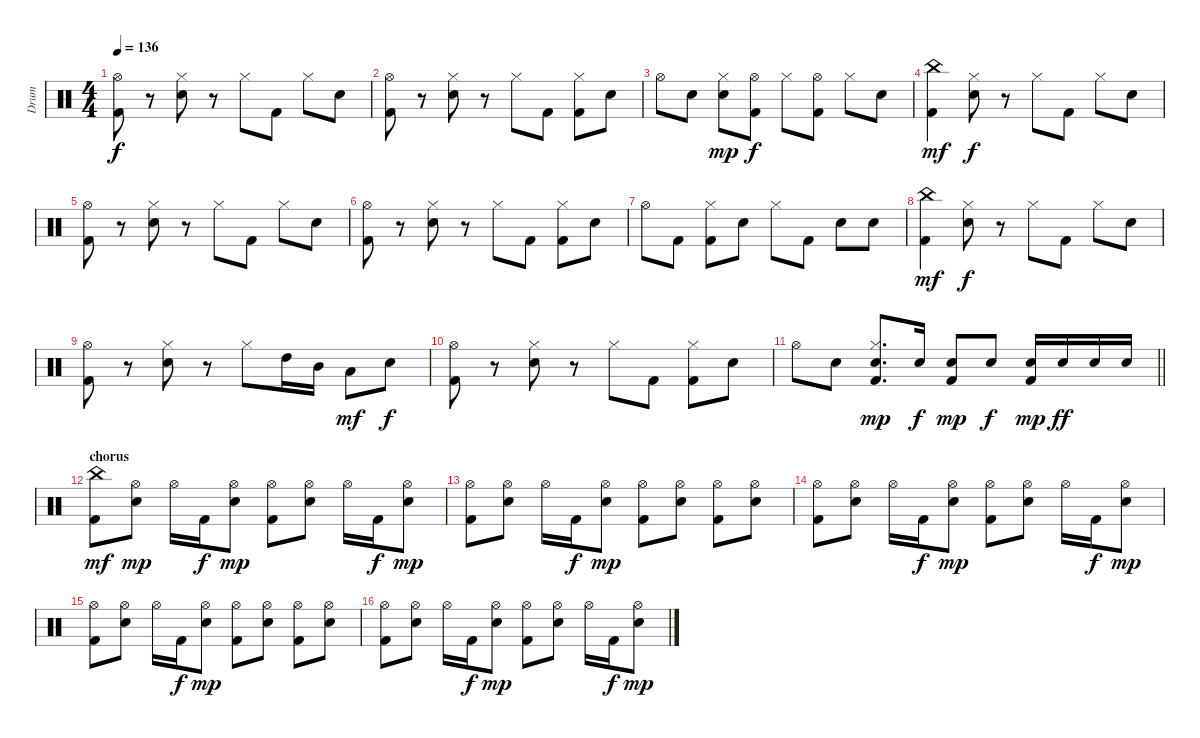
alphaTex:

\track ("Drum" "Drum") {instrument percussion}
\staff {score}
\articulation defaults
\ts (4 4)
\tempo 136
\clef neutral
\ks c
("Kick (hit) 2" "Hi-Hat (open)").8{dy f} r.8 ("Hi-Hat (closed)" "Electric Snare (hit)").8 r.8 "Hi-Hat (closed)".8 "Kick (hit) 2".8 "Hi-Hat (closed)".8 "Electric Snare (hit)".8 |
("Kick (hit) 2" "Hi-Hat (open)").8 r.8 ("Hi-Hat (closed)" "Electric Snare (hit)").8 r.8 "Hi-Hat (closed)".8 "Kick (hit) 2".8 ("Kick (hit) 2" "Hi-Hat (closed)").8 "Electric Snare (hit)".8 |
"Hi-Hat (open)".8 "Electric Snare (hit)".8 ("Electric Snare (hit)" "Hi-Hat (closed)").8{dy mp} ("Kick (hit) 2" "Hi-Hat (open)").8{dy f} "Hi-Hat (closed)".8 ("Kick (hit) 2" "Hi-Hat (open)").8 "Hi-Hat (closed)".8 "Electric Snare (hit)".8 |
("Kick (hit) 2" "China (hit)").4{dy mf} ("Hi-Hat (closed)" "Electric Snare (hit)").8{dy f} r.8 "Hi-Hat (closed)".8 "Kick (hit) 2".8 "Hi-Hat (closed)".8 "Electric Snare (hit)".8 |
("Kick (hit) 2" "Hi-Hat (open)").8 r.8 ("Hi-Hat (closed)" "Electric Snare (hit)").8 r.8 "Hi-Hat (closed)".8 "Kick (hit) 2".8 "Hi-Hat (closed)".8 "Electric Snare (hit)".8 |
("Kick (hit) 2" "Hi-Hat (open)").8 r.8 ("Hi-Hat (closed)" "Electric Snare (hit)").8 r.8 "Hi-Hat (closed)".8 "Kick (hit) 2".8 ("Kick (hit) 2" "Hi-Hat (closed)").8 "Electric Snare (hit)".8 |
"Hi-Hat (open)".8 "Kick (hit) 2".8 ("Kick (hit) 2" "Hi-Hat (closed)").8 "Electric Snare (hit)".8 "Hi-Hat (closed)".8 "Kick (hit) 2".8 "Electric Snare (hit)".8 "Electric Snare (hit)".8 |
("Kick (hit) 2" "China (hit)").4{dy mf} ("Hi-Hat (closed)" "Electric Snare (hit)").8{dy f} r.8 "Hi-Hat (closed)".8 "Kick (hit) 2".8 "Hi-Hat (closed)".8 "Electric Snare (hit)".8 |
("Kick (hit) 2" "Hi-Hat (open)").8 r.8 ("Hi-Hat (closed)" "Electric Snare (hit)").8 r.8 "Hi-Hat (closed)".8 "High Tom (hit)".16 "Mid Tom (hit)".16 "Low Tom (hit)".8{dy mf} "Electric Snare (hit)".8{dy f} |
("Kick (hit) 2" "Hi-Hat (open)").8 r.8 ("Hi-Hat (closed)" "Electric Snare (hit)").8 r.8 "Hi-Hat (closed)".8 "Kick (hit) 2".8 ("Kick (hit) 2" "Hi-Hat (closed)").8 "Electric Snare (hit)".8 |
\barLineRight lightlight "Hi-Hat (open)".8 "Electric Snare (hit)".8
("Electric Snare (hit)" "Hi-Hat (closed)" "Kick (hit) 2").8{d dy mp} "Electric Snare (hit)".16{dy f} ("Electric Snare (hit)" "Kick (hit) 2").8{dy mp} "Electric Snare (hit)".8{dy f} ("Electric Snare (hit)" "Kick (hit) 2").16{dy mp} "Electric Snare (hit)".16{dy ff} "Electric Snare (hit)".16 "Electric Snare (hit)".16 |
\section ("" "chorus")
("Kick (hit) 2" "China (hit)").8{dy mf} ("Electric Snare (hit)" "Hi-Hat (open)").8{dy mp} "Hi-Hat (open)".16 "Kick (hit) 2".16{dy f} ("Electric Snare (hit)" "Hi-Hat (open)").8{dy mp} ("Kick (hit) 2" "Hi-Hat (open)").8 ("Electric Snare (hit)" "Hi-Hat (open)").8 "Hi-Hat (open)".16 "Kick (hit) 2".16{dy f} ("Electric Snare (hit)" "Hi-Hat (open)").8{dy mp} |
("Kick (hit) 2" "Hi-Hat (open)").8 ("Electric Snare (hit)" "Hi-Hat (open)").8 "Hi-Hat (open)".16 "Kick (hit) 2".16{dy f} ("Electric Snare (hit)" "Hi-Hat (open)").8{dy mp} ("Kick (hit) 2" "Hi-Hat (open)").8 ("Electric Snare (hit)" "Hi-Hat (open)").8 ("Kick (hit) 2" "Hi-Hat (open)").8 ("Electric Snare (hit)" "Hi-Hat (open)").8 |
("Kick (hit) 2" "Hi-Hat (open)").8 ("Electric Snare (hit)" "Hi-Hat (open)").8 "Hi-Hat (open)".16 "Kick (hit) 2".16{dy f} ("Electric Snare (hit)" "Hi-Hat (open)").8{dy mp} ("Kick (hit) 2" "Hi-Hat (open)").8 ("Electric Snare (hit)" "Hi-Hat (open)").8 "Hi-Hat (open)".16 "Kick (hit) 2".16{dy f} ("Electric Snare (hit)" "Hi-Hat (open)").8{dy mp} |
("Kick (hit) 2" "Hi-Hat (open)").8 ("Electric Snare (hit)" "Hi-Hat (open)").8 "Hi-Hat (open)".16 "Kick (hit) 2".16{dy f} ("Electric Snare (hit)" "Hi-Hat (open)").8{dy mp} ("Kick (hit) 2" "Hi-Hat (open)").8 ("Electric Snare (hit)" "Hi-Hat (open)").8 ("Kick (hit) 2" "Hi-Hat (open)").8 ("Electric Snare (hit)" "Hi-Hat (open)").8 |
("Kick (hit) 2" "Hi-Hat (open)").8 ("Electric Snare (hit)" "Hi-Hat (open)").8 "Hi-Hat (open)".16 "Kick (hit) 2".16{dy f} ("Electric Snare (hit)" "Hi-Hat (open)").8{dy mp} ("Kick (hit) 2" "Hi-Hat (open)").8 ("Electric Snare (hit)" "Hi-Hat (open)").8 "Hi-Hat (open)".16 "Kick (hit) 2".16{dy f} ("Electric Snare (hit)" "Hi-Hat (open)").8{dy mp}
